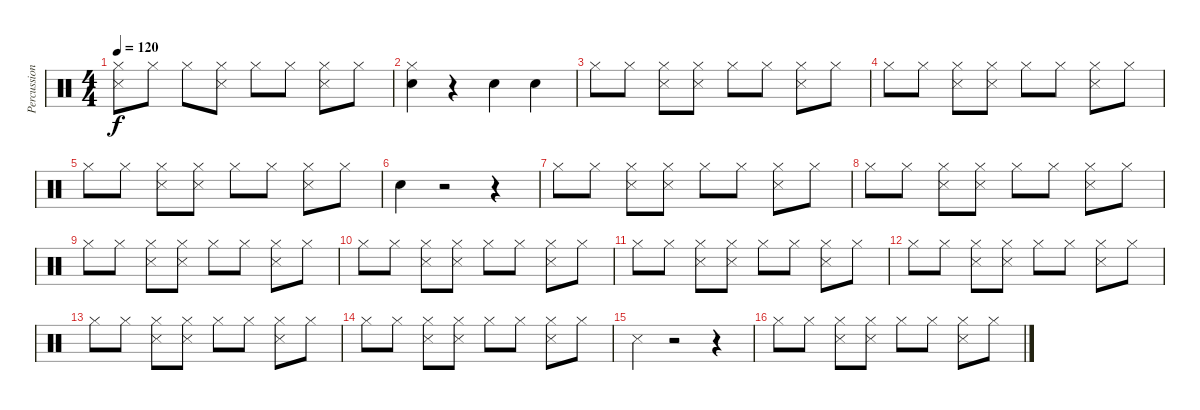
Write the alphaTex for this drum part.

\track ("Percussion" "Percussion") {instrument percussion}
\staff {score}
\articulation defaults
\ts (4 4)
\tempo 120
\clef neutral
\ks c
("Hi-Hat (closed)" "Snare (side stick) 3").8{dy f} "Hi-Hat (closed)".8 "Hi-Hat (closed)".8 ("Hi-Hat (closed)" "Snare (side stick) 3").8 "Hi-Hat (closed)".8 "Hi-Hat (closed)".8 ("Hi-Hat (closed)" "Snare (side stick) 3").8 "Hi-Hat (closed)".8 |
("Hi-Hat (closed)" "Snare (hit) 2").4 r.4 "Snare (hit) 2".4 "Snare (hit) 2".4 |
"Hi-Hat (closed)".8 "Hi-Hat (closed)".8 ("Hi-Hat (closed)" "Snare (side stick) 3").8 ("Hi-Hat (closed)" "Snare (side stick) 3").8 "Hi-Hat (closed)".8 "Hi-Hat (closed)".8 ("Hi-Hat (closed)" "Snare (side stick) 3").8 "Hi-Hat (closed)".8 |
"Hi-Hat (closed)".8 "Hi-Hat (closed)".8 ("Hi-Hat (closed)" "Snare (side stick) 3").8 ("Hi-Hat (closed)" "Snare (side stick) 3").8 "Hi-Hat (closed)".8 "Hi-Hat (closed)".8 ("Hi-Hat (closed)" "Snare (side stick) 3").8 "Hi-Hat (closed)".8 |
"Hi-Hat (closed)".8 "Hi-Hat (closed)".8 ("Hi-Hat (closed)" "Snare (side stick) 3").8 ("Hi-Hat (closed)" "Snare (side stick) 3").8 "Hi-Hat (closed)".8 "Hi-Hat (closed)".8 ("Hi-Hat (closed)" "Snare (side stick) 3").8 "Hi-Hat (closed)".8 |
"Snare (hit) 2".4 r.2 r.4 |
"Hi-Hat (closed)".8 "Hi-Hat (closed)".8 ("Hi-Hat (closed)" "Snare (side stick) 3").8 ("Hi-Hat (closed)" "Snare (side stick) 3").8 "Hi-Hat (closed)".8 "Hi-Hat (closed)".8 ("Hi-Hat (closed)" "Snare (side stick) 3").8 "Hi-Hat (closed)".8 |
"Hi-Hat (closed)".8 "Hi-Hat (closed)".8 ("Hi-Hat (closed)" "Snare (side stick) 3").8 ("Hi-Hat (closed)" "Snare (side stick) 3").8 "Hi-Hat (closed)".8 "Hi-Hat (closed)".8 ("Hi-Hat (closed)" "Snare (side stick) 3").8 "Hi-Hat (closed)".8 |
"Hi-Hat (closed)".8 "Hi-Hat (closed)".8 ("Hi-Hat (closed)" "Snare (side stick) 3").8 ("Hi-Hat (closed)" "Snare (side stick) 3").8 "Hi-Hat (closed)".8 "Hi-Hat (closed)".8 ("Hi-Hat (closed)" "Snare (side stick) 3").8 "Hi-Hat (closed)".8 |
"Hi-Hat (closed)".8 "Hi-Hat (closed)".8 ("Hi-Hat (closed)" "Snare (side stick) 3").8 ("Hi-Hat (closed)" "Snare (side stick) 3").8 "Hi-Hat (closed)".8 "Hi-Hat (closed)".8 ("Hi-Hat (closed)" "Snare (side stick) 3").8 "Hi-Hat (closed)".8 |
"Hi-Hat (closed)".8 "Hi-Hat (closed)".8 ("Hi-Hat (closed)" "Snare (side stick) 3").8 ("Hi-Hat (closed)" "Snare (side stick) 3").8 "Hi-Hat (closed)".8 "Hi-Hat (closed)".8 ("Hi-Hat (closed)" "Snare (side stick) 3").8 "Hi-Hat (closed)".8 |
"Hi-Hat (closed)".8 "Hi-Hat (closed)".8 ("Hi-Hat (closed)" "Snare (side stick) 3").8 ("Hi-Hat (closed)" "Snare (side stick) 3").8 "Hi-Hat (closed)".8 "Hi-Hat (closed)".8 ("Hi-Hat (closed)" "Snare (side stick) 3").8 "Hi-Hat (closed)".8 |
"Hi-Hat (closed)".8 "Hi-Hat (closed)".8 ("Hi-Hat (closed)" "Snare (side stick) 3").8 ("Hi-Hat (closed)" "Snare (side stick) 3").8 "Hi-Hat (closed)".8 "Hi-Hat (closed)".8 ("Hi-Hat (closed)" "Snare (side stick) 3").8 "Hi-Hat (closed)".8 |
"Hi-Hat (closed)".8 "Hi-Hat (closed)".8 ("Hi-Hat (closed)" "Snare (side stick) 3").8 ("Hi-Hat (closed)" "Snare (side stick) 3").8 "Hi-Hat (closed)".8 "Hi-Hat (closed)".8 ("Hi-Hat (closed)" "Snare (side stick) 3").8 "Hi-Hat (closed)".8 |
"Snare (side stick) 3".4 r.2 r.4 |
"Hi-Hat (closed)".8 "Hi-Hat (closed)".8 ("Hi-Hat (closed)" "Snare (side stick) 3").8 ("Hi-Hat (closed)" "Snare (side stick) 3").8 "Hi-Hat (closed)".8 "Hi-Hat (closed)".8 ("Hi-Hat (closed)" "Snare (side stick) 3").8 "Hi-Hat (closed)".8
